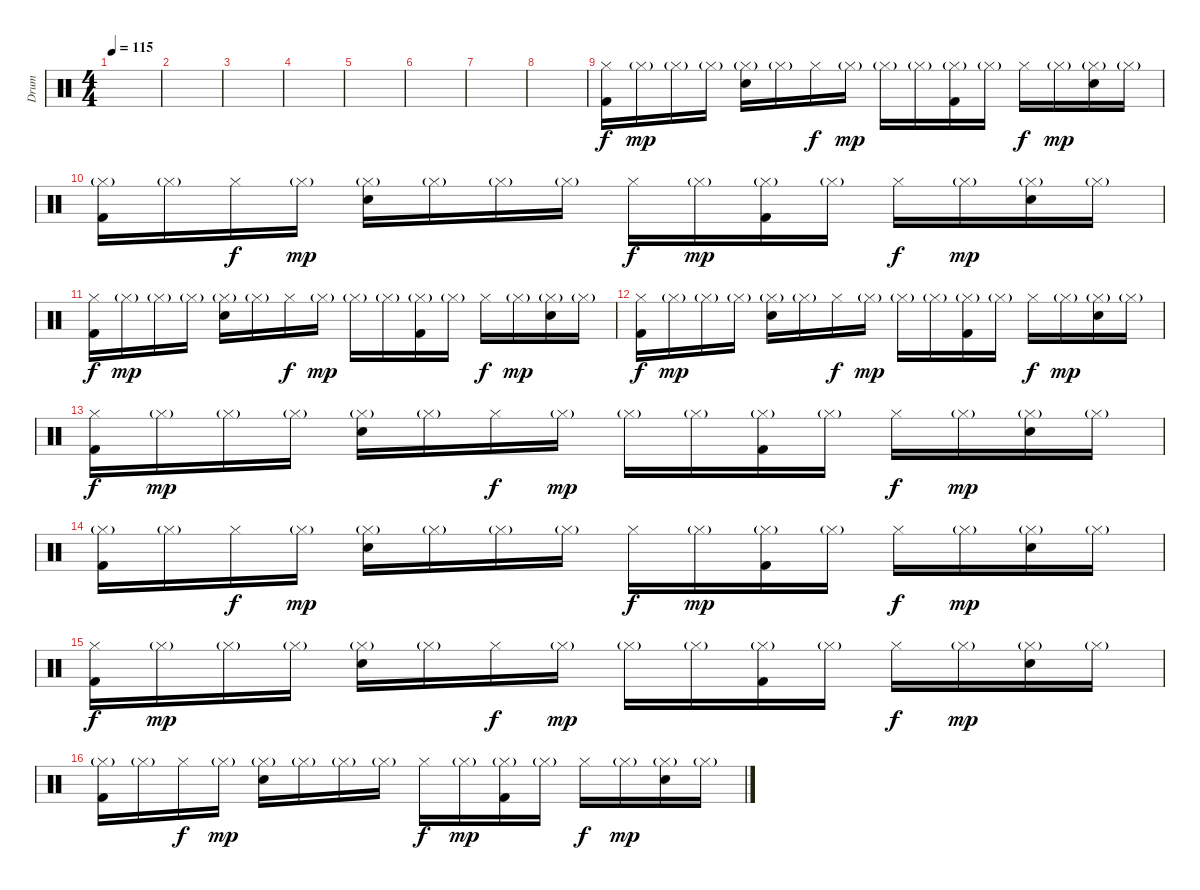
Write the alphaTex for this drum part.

\track ("Drum" "Drum") {instrument percussion}
\staff {score}
\articulation defaults
\ts (4 4)
\tempo 115
\clef neutral
\ks c
|
|
|
|
|
|
|
|
("Kick (hit) 2" "Hi-Hat (closed)").16{dy f} "Hi-Hat (closed)"{g}.16{dy mp} "Hi-Hat (closed)"{g}.16 "Hi-Hat (closed)"{g}.16 ("Electric Snare (hit)" "Hi-Hat (closed)"{g}).16 "Hi-Hat (closed)"{g}.16 "Hi-Hat (closed)".16{dy f} "Hi-Hat (closed)"{g}.16{dy mp} "Hi-Hat (closed)"{g}.16 "Hi-Hat (closed)"{g}.16 ("Kick (hit) 2" "Hi-Hat (closed)"{g}).16 "Hi-Hat (closed)"{g}.16 "Hi-Hat (closed)".16{dy f} "Hi-Hat (closed)"{g}.16{dy mp} ("Electric Snare (hit)" "Hi-Hat (closed)"{g}).16 "Hi-Hat (closed)"{g}.16 |
("Kick (hit) 2" "Hi-Hat (closed)"{g}).16 "Hi-Hat (closed)"{g}.16 "Hi-Hat (closed)".16{dy f} "Hi-Hat (closed)"{g}.16{dy mp} ("Electric Snare (hit)" "Hi-Hat (closed)"{g}).16 "Hi-Hat (closed)"{g}.16 "Hi-Hat (closed)"{g}.16 "Hi-Hat (closed)"{g}.16 "Hi-Hat (closed)".16{dy f} "Hi-Hat (closed)"{g}.16{dy mp} ("Kick (hit) 2" "Hi-Hat (closed)"{g}).16 "Hi-Hat (closed)"{g}.16 "Hi-Hat (closed)".16{dy f} "Hi-Hat (closed)"{g}.16{dy mp} ("Electric Snare (hit)" "Hi-Hat (closed)"{g}).16 "Hi-Hat (closed)"{g}.16 |
("Kick (hit) 2" "Hi-Hat (closed)").16{dy f} "Hi-Hat (closed)"{g}.16{dy mp} "Hi-Hat (closed)"{g}.16 "Hi-Hat (closed)"{g}.16 ("Electric Snare (hit)" "Hi-Hat (closed)"{g}).16 "Hi-Hat (closed)"{g}.16 "Hi-Hat (closed)".16{dy f} "Hi-Hat (closed)"{g}.16{dy mp} "Hi-Hat (closed)"{g}.16 "Hi-Hat (closed)"{g}.16 ("Kick (hit) 2" "Hi-Hat (closed)"{g}).16 "Hi-Hat (closed)"{g}.16 "Hi-Hat (closed)".16{dy f} "Hi-Hat (closed)"{g}.16{dy mp} ("Electric Snare (hit)" "Hi-Hat (closed)"{g}).16 "Hi-Hat (closed)"{g}.16 |
("Kick (hit) 2" "Hi-Hat (closed)").16{dy f} "Hi-Hat (closed)"{g}.16{dy mp} "Hi-Hat (closed)"{g}.16 "Hi-Hat (closed)"{g}.16 ("Electric Snare (hit)" "Hi-Hat (closed)"{g}).16 "Hi-Hat (closed)"{g}.16 "Hi-Hat (closed)".16{dy f} "Hi-Hat (closed)"{g}.16{dy mp} "Hi-Hat (closed)"{g}.16 "Hi-Hat (closed)"{g}.16 ("Kick (hit) 2" "Hi-Hat (closed)"{g}).16 "Hi-Hat (closed)"{g}.16 "Hi-Hat (closed)".16{dy f} "Hi-Hat (closed)"{g}.16{dy mp} ("Electric Snare (hit)" "Hi-Hat (closed)"{g}).16 "Hi-Hat (closed)"{g}.16 |
("Kick (hit) 2" "Hi-Hat (closed)").16{dy f} "Hi-Hat (closed)"{g}.16{dy mp} "Hi-Hat (closed)"{g}.16 "Hi-Hat (closed)"{g}.16 ("Electric Snare (hit)" "Hi-Hat (closed)"{g}).16 "Hi-Hat (closed)"{g}.16 "Hi-Hat (closed)".16{dy f} "Hi-Hat (closed)"{g}.16{dy mp} "Hi-Hat (closed)"{g}.16 "Hi-Hat (closed)"{g}.16 ("Kick (hit) 2" "Hi-Hat (closed)"{g}).16 "Hi-Hat (closed)"{g}.16 "Hi-Hat (closed)".16{dy f} "Hi-Hat (closed)"{g}.16{dy mp} ("Electric Snare (hit)" "Hi-Hat (closed)"{g}).16 "Hi-Hat (closed)"{g}.16 |
("Kick (hit) 2" "Hi-Hat (closed)"{g}).16 "Hi-Hat (closed)"{g}.16 "Hi-Hat (closed)".16{dy f} "Hi-Hat (closed)"{g}.16{dy mp} ("Electric Snare (hit)" "Hi-Hat (closed)"{g}).16 "Hi-Hat (closed)"{g}.16 "Hi-Hat (closed)"{g}.16 "Hi-Hat (closed)"{g}.16 "Hi-Hat (closed)".16{dy f} "Hi-Hat (closed)"{g}.16{dy mp} ("Kick (hit) 2" "Hi-Hat (closed)"{g}).16 "Hi-Hat (closed)"{g}.16 "Hi-Hat (closed)".16{dy f} "Hi-Hat (closed)"{g}.16{dy mp} ("Electric Snare (hit)" "Hi-Hat (closed)"{g}).16 "Hi-Hat (closed)"{g}.16 |
("Kick (hit) 2" "Hi-Hat (closed)").16{dy f} "Hi-Hat (closed)"{g}.16{dy mp} "Hi-Hat (closed)"{g}.16 "Hi-Hat (closed)"{g}.16 ("Electric Snare (hit)" "Hi-Hat (closed)"{g}).16 "Hi-Hat (closed)"{g}.16 "Hi-Hat (closed)".16{dy f} "Hi-Hat (closed)"{g}.16{dy mp} "Hi-Hat (closed)"{g}.16 "Hi-Hat (closed)"{g}.16 ("Kick (hit) 2" "Hi-Hat (closed)"{g}).16 "Hi-Hat (closed)"{g}.16 "Hi-Hat (closed)".16{dy f} "Hi-Hat (closed)"{g}.16{dy mp} ("Electric Snare (hit)" "Hi-Hat (closed)"{g}).16 "Hi-Hat (closed)"{g}.16 |
("Kick (hit) 2" "Hi-Hat (closed)"{g}).16 "Hi-Hat (closed)"{g}.16 "Hi-Hat (closed)".16{dy f} "Hi-Hat (closed)"{g}.16{dy mp} ("Electric Snare (hit)" "Hi-Hat (closed)"{g}).16 "Hi-Hat (closed)"{g}.16 "Hi-Hat (closed)"{g}.16 "Hi-Hat (closed)"{g}.16 "Hi-Hat (closed)".16{dy f} "Hi-Hat (closed)"{g}.16{dy mp} ("Kick (hit) 2" "Hi-Hat (closed)"{g}).16 "Hi-Hat (closed)"{g}.16 "Hi-Hat (closed)".16{dy f} "Hi-Hat (closed)"{g}.16{dy mp} ("Electric Snare (hit)" "Hi-Hat (closed)"{g}).16 "Hi-Hat (closed)"{g}.16
